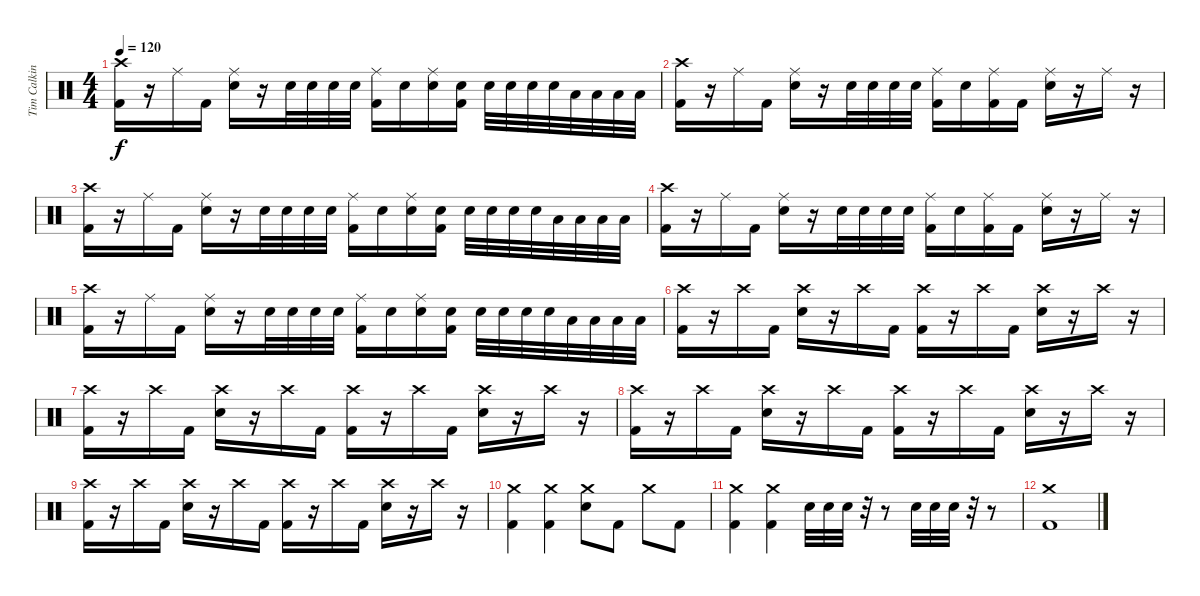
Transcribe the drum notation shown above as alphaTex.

\track ("Tim Calkin" "Tim Calkin") {instrument percussion}
\staff {score}
\articulation defaults
\ts (4 4)
\tempo 120
\clef neutral
\ks c
("Crash high (hit)" "Kick (hit) 2").16{dy f} r.16 "Ride (middle)".16 "Kick (hit) 2".16 ("Ride (middle)" "Snare (hit) 2").16 r.16 "Snare (hit) 2".32 "Snare (hit) 2".32 "Snare (hit) 2".32 "Snare (hit) 2".32 ("Ride (middle)" "Kick (hit) 2").16 "Snare (hit) 2".16 ("Ride (middle)" "Snare (hit) 2").16 ("Snare (hit) 2" "Kick (hit) 2").16 "Snare (hit) 2".32 "Snare (hit) 2".32 "Snare (hit) 2".32 "Snare (hit) 2".32 "Low Tom (hit)".32 "Low Tom (hit)".32 "Low Floor Tom (hit)".32 "Low Floor Tom (hit)".32 |
("Crash high (hit)" "Kick (hit) 2").16 r.16 "Ride (middle)".16 "Kick (hit) 2".16 ("Ride (middle)" "Snare (hit) 2").16 r.16 "Snare (hit) 2".32 "Snare (hit) 2".32 "Snare (hit) 2".32 "Snare (hit) 2".32 ("Ride (middle)" "Kick (hit) 2").16 "Snare (hit) 2".16 ("Ride (middle)" "Kick (hit) 2").16 "Kick (hit) 2".16 ("Ride (middle)" "Snare (hit) 2").16 r.16 "Ride (middle)".16 r.16 |
("Crash high (hit)" "Kick (hit) 2").16 r.16 "Ride (middle)".16 "Kick (hit) 2".16 ("Ride (middle)" "Snare (hit) 2").16 r.16 "Snare (hit) 2".32 "Snare (hit) 2".32 "Snare (hit) 2".32 "Snare (hit) 2".32 ("Ride (middle)" "Kick (hit) 2").16 "Snare (hit) 2".16 ("Ride (middle)" "Snare (hit) 2").16 ("Snare (hit) 2" "Kick (hit) 2").16 "Snare (hit) 2".32 "Snare (hit) 2".32 "Snare (hit) 2".32 "Snare (hit) 2".32 "Low Tom (hit)".32 "Low Tom (hit)".32 "Low Floor Tom (hit)".32 "Low Floor Tom (hit)".32 |
("Crash high (hit)" "Kick (hit) 2").16 r.16 "Ride (middle)".16 "Kick (hit) 2".16 ("Ride (middle)" "Snare (hit) 2").16 r.16 "Snare (hit) 2".32 "Snare (hit) 2".32 "Snare (hit) 2".32 "Snare (hit) 2".32 ("Ride (middle)" "Kick (hit) 2").16 "Snare (hit) 2".16 ("Ride (middle)" "Kick (hit) 2").16 "Kick (hit) 2".16 ("Ride (middle)" "Snare (hit) 2").16 r.16 "Ride (middle)".16 r.16 |
("Crash high (hit)" "Kick (hit) 2").16 r.16 "Ride (middle)".16 "Kick (hit) 2".16 ("Ride (middle)" "Snare (hit) 2").16 r.16 "Snare (hit) 2".32 "Snare (hit) 2".32 "Snare (hit) 2".32 "Snare (hit) 2".32 ("Ride (middle)" "Kick (hit) 2").16 "Snare (hit) 2".16 ("Ride (middle)" "Snare (hit) 2").16 ("Snare (hit) 2" "Kick (hit) 2").16 "Snare (hit) 2".32 "Snare (hit) 2".32 "Snare (hit) 2".32 "Snare (hit) 2".32 "Low Tom (hit)".32 "Low Tom (hit)".32 "Low Floor Tom (hit)".32 "Low Floor Tom (hit)".32 |
("Crash high (hit)" "Kick (hit) 2").16 r.16 "Crash high (hit)".16 "Kick (hit) 2".16 ("Crash high (hit)" "Snare (hit) 2").16 r.16 "Crash high (hit)".16 "Kick (hit) 2".16 ("Crash high (hit)" "Kick (hit) 2").16 r.16 "Crash high (hit)".16 "Kick (hit) 2".16 ("Crash high (hit)" "Snare (hit) 2").16 r.16 "Crash high (hit)".16 r.16 |
("Crash high (hit)" "Kick (hit) 2").16 r.16 "Crash high (hit)".16 "Kick (hit) 2".16 ("Crash high (hit)" "Snare (hit) 2").16 r.16 "Crash high (hit)".16 "Kick (hit) 2".16 ("Crash high (hit)" "Kick (hit) 2").16 r.16 "Crash high (hit)".16 "Kick (hit) 2".16 ("Crash high (hit)" "Snare (hit) 2").16 r.16 "Crash high (hit)".16 r.16 |
("Crash high (hit)" "Kick (hit) 2").16 r.16 "Crash high (hit)".16 "Kick (hit) 2".16 ("Crash high (hit)" "Snare (hit) 2").16 r.16 "Crash high (hit)".16 "Kick (hit) 2".16 ("Crash high (hit)" "Kick (hit) 2").16 r.16 "Crash high (hit)".16 "Kick (hit) 2".16 ("Crash high (hit)" "Snare (hit) 2").16 r.16 "Crash high (hit)".16 r.16 |
("Crash high (hit)" "Kick (hit) 2").16 r.16 "Crash high (hit)".16 "Kick (hit) 2".16 ("Crash high (hit)" "Snare (hit) 2").16 r.16 "Crash high (hit)".16 "Kick (hit) 2".16 ("Crash high (hit)" "Kick (hit) 2").16 r.16 "Crash high (hit)".16 "Kick (hit) 2".16 ("Crash high (hit)" "Snare (hit) 2").16 r.16 "Crash high (hit)".16 r.16 |
("Crash medium (hit)" "Kick (hit) 2").4 ("Crash medium (hit)" "Kick (hit) 2").4 ("Crash medium (hit)" "Snare (hit) 2").8 "Kick (hit) 2".8 "Crash medium (hit)".8 "Kick (hit) 2".8 |
("Crash medium (hit)" "Kick (hit) 2").4 ("Crash medium (hit)" "Kick (hit) 2").4 "Snare (hit) 2".32 "Snare (hit) 2".32 "Snare (hit) 2".32 r.32 r.8 "Snare (hit) 2".32 "Snare (hit) 2".32 "Snare (hit) 2".32 r.32 r.8 |
("Crash medium (hit)" "Kick (hit) 2").1
